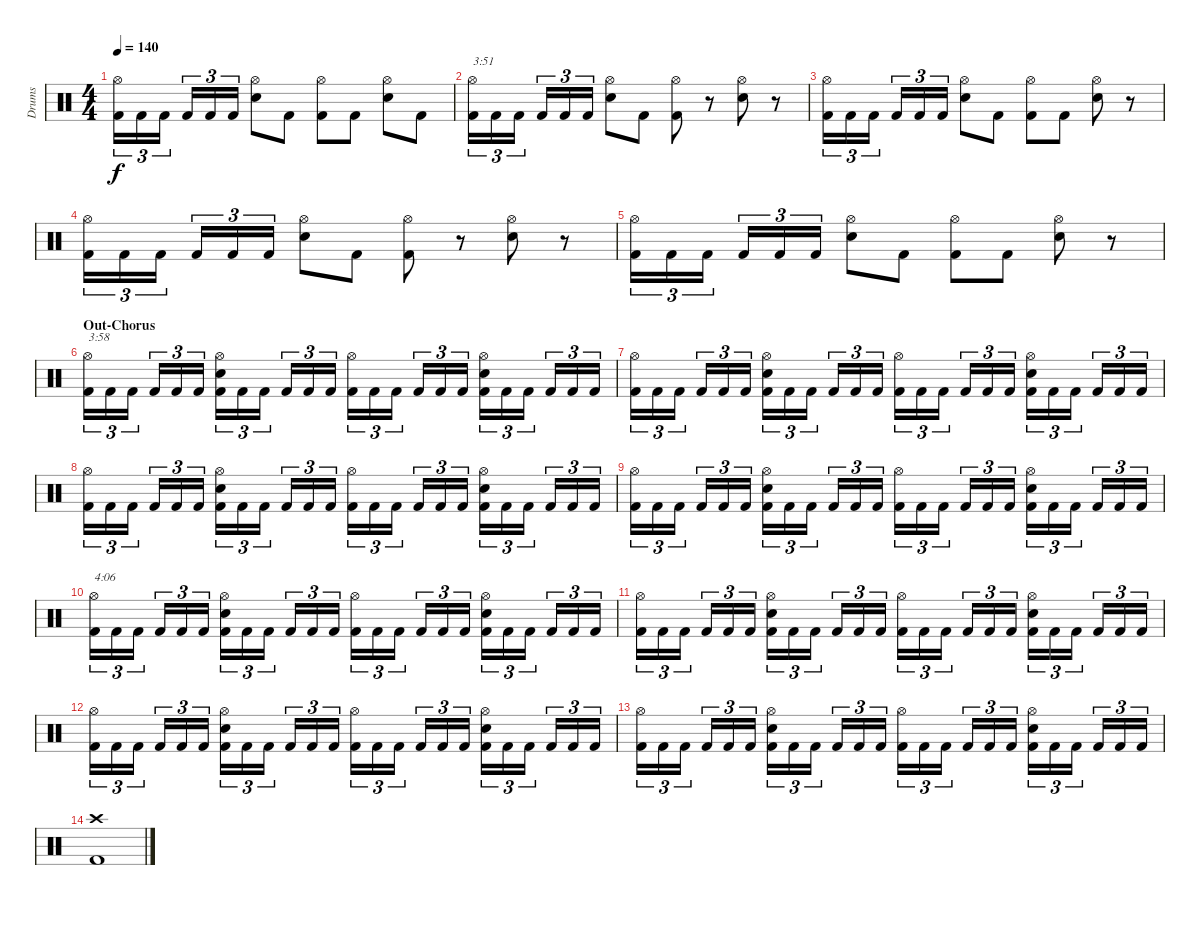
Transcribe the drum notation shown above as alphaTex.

\track ("Drums" "Drums") {instrument percussion}
\staff {score}
\articulation defaults
\ts (4 4)
\tempo 140
\clef neutral
\ks c
("Hi-Hat (open)" "Kick (hit) 2").16{tu (3 2) dy f} "Kick (hit) 2".16{tu (3 2)} "Kick (hit) 2".16{tu (3 2)} "Kick (hit) 2".16{tu (3 2)} "Kick (hit) 2".16{tu (3 2)} "Kick (hit) 2".16{tu (3 2)} ("Hi-Hat (open)" "Electric Snare (hit)").8 "Kick (hit) 2".8 ("Hi-Hat (open)" "Kick (hit) 2").8 "Kick (hit) 2".8 ("Hi-Hat (open)" "Electric Snare (hit)").8 "Kick (hit) 2".8 |
("Hi-Hat (open)" "Kick (hit) 2").16{tu (3 2) txt "3:51"} "Kick (hit) 2".16{tu (3 2)} "Kick (hit) 2".16{tu (3 2)} "Kick (hit) 2".16{tu (3 2)} "Kick (hit) 2".16{tu (3 2)} "Kick (hit) 2".16{tu (3 2)} ("Hi-Hat (open)" "Electric Snare (hit)").8 "Kick (hit) 2".8 ("Hi-Hat (open)" "Kick (hit) 2").8 r.8 ("Hi-Hat (open)" "Electric Snare (hit)").8 r.8 |
("Hi-Hat (open)" "Kick (hit) 2").16{tu (3 2)} "Kick (hit) 2".16{tu (3 2)} "Kick (hit) 2".16{tu (3 2)} "Kick (hit) 2".16{tu (3 2)} "Kick (hit) 2".16{tu (3 2)} "Kick (hit) 2".16{tu (3 2)} ("Hi-Hat (open)" "Electric Snare (hit)").8 "Kick (hit) 2".8 ("Hi-Hat (open)" "Kick (hit) 2").8 "Kick (hit) 2".8 ("Hi-Hat (open)" "Electric Snare (hit)").8 r.8 |
("Hi-Hat (open)" "Kick (hit) 2").16{tu (3 2)} "Kick (hit) 2".16{tu (3 2)} "Kick (hit) 2".16{tu (3 2)} "Kick (hit) 2".16{tu (3 2)} "Kick (hit) 2".16{tu (3 2)} "Kick (hit) 2".16{tu (3 2)} ("Hi-Hat (open)" "Electric Snare (hit)").8 "Kick (hit) 2".8 ("Hi-Hat (open)" "Kick (hit) 2").8 r.8 ("Hi-Hat (open)" "Electric Snare (hit)").8 r.8 |
("Hi-Hat (open)" "Kick (hit) 2").16{tu (3 2)} "Kick (hit) 2".16{tu (3 2)} "Kick (hit) 2".16{tu (3 2)} "Kick (hit) 2".16{tu (3 2)} "Kick (hit) 2".16{tu (3 2)} "Kick (hit) 2".16{tu (3 2)} ("Hi-Hat (open)" "Electric Snare (hit)").8 "Kick (hit) 2".8 ("Hi-Hat (open)" "Kick (hit) 2").8 "Kick (hit) 2".8 ("Hi-Hat (open)" "Electric Snare (hit)").8 r.8 |
\section ("" "Out-Chorus")
("Hi-Hat (open)" "Kick (hit) 2").16{tu (3 2) txt "3:58"} "Kick (hit) 2".16{tu (3 2)} "Kick (hit) 2".16{tu (3 2)} "Kick (hit) 2".16{tu (3 2)} "Kick (hit) 2".16{tu (3 2)} "Kick (hit) 2".16{tu (3 2)} ("Hi-Hat (open)" "Electric Snare (hit)" "Kick (hit) 2").16{tu (3 2)} "Kick (hit) 2".16{tu (3 2)} "Kick (hit) 2".16{tu (3 2)} "Kick (hit) 2".16{tu (3 2)} "Kick (hit) 2".16{tu (3 2)} "Kick (hit) 2".16{tu (3 2)} ("Hi-Hat (open)" "Kick (hit) 2").16{tu (3 2)} "Kick (hit) 2".16{tu (3 2)} "Kick (hit) 2".16{tu (3 2)} "Kick (hit) 2".16{tu (3 2)} "Kick (hit) 2".16{tu (3 2)} "Kick (hit) 2".16{tu (3 2)} ("Hi-Hat (open)" "Electric Snare (hit)" "Kick (hit) 2").16{tu (3 2)} "Kick (hit) 2".16{tu (3 2)} "Kick (hit) 2".16{tu (3 2)} "Kick (hit) 2".16{tu (3 2)} "Kick (hit) 2".16{tu (3 2)} "Kick (hit) 2".16{tu (3 2)} |
("Hi-Hat (open)" "Kick (hit) 2").16{tu (3 2)} "Kick (hit) 2".16{tu (3 2)} "Kick (hit) 2".16{tu (3 2)} "Kick (hit) 2".16{tu (3 2)} "Kick (hit) 2".16{tu (3 2)} "Kick (hit) 2".16{tu (3 2)} ("Hi-Hat (open)" "Electric Snare (hit)" "Kick (hit) 2").16{tu (3 2)} "Kick (hit) 2".16{tu (3 2)} "Kick (hit) 2".16{tu (3 2)} "Kick (hit) 2".16{tu (3 2)} "Kick (hit) 2".16{tu (3 2)} "Kick (hit) 2".16{tu (3 2)} ("Hi-Hat (open)" "Kick (hit) 2").16{tu (3 2)} "Kick (hit) 2".16{tu (3 2)} "Kick (hit) 2".16{tu (3 2)} "Kick (hit) 2".16{tu (3 2)} "Kick (hit) 2".16{tu (3 2)} "Kick (hit) 2".16{tu (3 2)} ("Hi-Hat (open)" "Electric Snare (hit)" "Kick (hit) 2").16{tu (3 2)} "Kick (hit) 2".16{tu (3 2)} "Kick (hit) 2".16{tu (3 2)} "Kick (hit) 2".16{tu (3 2)} "Kick (hit) 2".16{tu (3 2)} "Kick (hit) 2".16{tu (3 2)} |
("Hi-Hat (open)" "Kick (hit) 2").16{tu (3 2)} "Kick (hit) 2".16{tu (3 2)} "Kick (hit) 2".16{tu (3 2)} "Kick (hit) 2".16{tu (3 2)} "Kick (hit) 2".16{tu (3 2)} "Kick (hit) 2".16{tu (3 2)} ("Hi-Hat (open)" "Electric Snare (hit)" "Kick (hit) 2").16{tu (3 2)} "Kick (hit) 2".16{tu (3 2)} "Kick (hit) 2".16{tu (3 2)} "Kick (hit) 2".16{tu (3 2)} "Kick (hit) 2".16{tu (3 2)} "Kick (hit) 2".16{tu (3 2)} ("Hi-Hat (open)" "Kick (hit) 2").16{tu (3 2)} "Kick (hit) 2".16{tu (3 2)} "Kick (hit) 2".16{tu (3 2)} "Kick (hit) 2".16{tu (3 2)} "Kick (hit) 2".16{tu (3 2)} "Kick (hit) 2".16{tu (3 2)} ("Hi-Hat (open)" "Electric Snare (hit)" "Kick (hit) 2").16{tu (3 2)} "Kick (hit) 2".16{tu (3 2)} "Kick (hit) 2".16{tu (3 2)} "Kick (hit) 2".16{tu (3 2)} "Kick (hit) 2".16{tu (3 2)} "Kick (hit) 2".16{tu (3 2)} |
("Hi-Hat (open)" "Kick (hit) 2").16{tu (3 2)} "Kick (hit) 2".16{tu (3 2)} "Kick (hit) 2".16{tu (3 2)} "Kick (hit) 2".16{tu (3 2)} "Kick (hit) 2".16{tu (3 2)} "Kick (hit) 2".16{tu (3 2)} ("Hi-Hat (open)" "Electric Snare (hit)" "Kick (hit) 2").16{tu (3 2)} "Kick (hit) 2".16{tu (3 2)} "Kick (hit) 2".16{tu (3 2)} "Kick (hit) 2".16{tu (3 2)} "Kick (hit) 2".16{tu (3 2)} "Kick (hit) 2".16{tu (3 2)} ("Hi-Hat (open)" "Kick (hit) 2").16{tu (3 2)} "Kick (hit) 2".16{tu (3 2)} "Kick (hit) 2".16{tu (3 2)} "Kick (hit) 2".16{tu (3 2)} "Kick (hit) 2".16{tu (3 2)} "Kick (hit) 2".16{tu (3 2)} ("Hi-Hat (open)" "Electric Snare (hit)" "Kick (hit) 2").16{tu (3 2)} "Kick (hit) 2".16{tu (3 2)} "Kick (hit) 2".16{tu (3 2)} "Kick (hit) 2".16{tu (3 2)} "Kick (hit) 2".16{tu (3 2)} "Kick (hit) 2".16{tu (3 2)} |
("Hi-Hat (open)" "Kick (hit) 2").16{tu (3 2) txt "4:06"} "Kick (hit) 2".16{tu (3 2)} "Kick (hit) 2".16{tu (3 2)} "Kick (hit) 2".16{tu (3 2)} "Kick (hit) 2".16{tu (3 2)} "Kick (hit) 2".16{tu (3 2)} ("Hi-Hat (open)" "Electric Snare (hit)" "Kick (hit) 2").16{tu (3 2)} "Kick (hit) 2".16{tu (3 2)} "Kick (hit) 2".16{tu (3 2)} "Kick (hit) 2".16{tu (3 2)} "Kick (hit) 2".16{tu (3 2)} "Kick (hit) 2".16{tu (3 2)} ("Hi-Hat (open)" "Kick (hit) 2").16{tu (3 2)} "Kick (hit) 2".16{tu (3 2)} "Kick (hit) 2".16{tu (3 2)} "Kick (hit) 2".16{tu (3 2)} "Kick (hit) 2".16{tu (3 2)} "Kick (hit) 2".16{tu (3 2)} ("Hi-Hat (open)" "Electric Snare (hit)" "Kick (hit) 2").16{tu (3 2)} "Kick (hit) 2".16{tu (3 2)} "Kick (hit) 2".16{tu (3 2)} "Kick (hit) 2".16{tu (3 2)} "Kick (hit) 2".16{tu (3 2)} "Kick (hit) 2".16{tu (3 2)} |
("Hi-Hat (open)" "Kick (hit) 2").16{tu (3 2)} "Kick (hit) 2".16{tu (3 2)} "Kick (hit) 2".16{tu (3 2)} "Kick (hit) 2".16{tu (3 2)} "Kick (hit) 2".16{tu (3 2)} "Kick (hit) 2".16{tu (3 2)} ("Hi-Hat (open)" "Electric Snare (hit)" "Kick (hit) 2").16{tu (3 2)} "Kick (hit) 2".16{tu (3 2)} "Kick (hit) 2".16{tu (3 2)} "Kick (hit) 2".16{tu (3 2)} "Kick (hit) 2".16{tu (3 2)} "Kick (hit) 2".16{tu (3 2)} ("Hi-Hat (open)" "Kick (hit) 2").16{tu (3 2)} "Kick (hit) 2".16{tu (3 2)} "Kick (hit) 2".16{tu (3 2)} "Kick (hit) 2".16{tu (3 2)} "Kick (hit) 2".16{tu (3 2)} "Kick (hit) 2".16{tu (3 2)} ("Hi-Hat (open)" "Electric Snare (hit)" "Kick (hit) 2").16{tu (3 2)} "Kick (hit) 2".16{tu (3 2)} "Kick (hit) 2".16{tu (3 2)} "Kick (hit) 2".16{tu (3 2)} "Kick (hit) 2".16{tu (3 2)} "Kick (hit) 2".16{tu (3 2)} |
("Hi-Hat (open)" "Kick (hit) 2").16{tu (3 2)} "Kick (hit) 2".16{tu (3 2)} "Kick (hit) 2".16{tu (3 2)} "Kick (hit) 2".16{tu (3 2)} "Kick (hit) 2".16{tu (3 2)} "Kick (hit) 2".16{tu (3 2)} ("Hi-Hat (open)" "Electric Snare (hit)" "Kick (hit) 2").16{tu (3 2)} "Kick (hit) 2".16{tu (3 2)} "Kick (hit) 2".16{tu (3 2)} "Kick (hit) 2".16{tu (3 2)} "Kick (hit) 2".16{tu (3 2)} "Kick (hit) 2".16{tu (3 2)} ("Hi-Hat (open)" "Kick (hit) 2").16{tu (3 2)} "Kick (hit) 2".16{tu (3 2)} "Kick (hit) 2".16{tu (3 2)} "Kick (hit) 2".16{tu (3 2)} "Kick (hit) 2".16{tu (3 2)} "Kick (hit) 2".16{tu (3 2)} ("Hi-Hat (open)" "Electric Snare (hit)" "Kick (hit) 2").16{tu (3 2)} "Kick (hit) 2".16{tu (3 2)} "Kick (hit) 2".16{tu (3 2)} "Kick (hit) 2".16{tu (3 2)} "Kick (hit) 2".16{tu (3 2)} "Kick (hit) 2".16{tu (3 2)} |
("Hi-Hat (open)" "Kick (hit) 2").16{tu (3 2)} "Kick (hit) 2".16{tu (3 2)} "Kick (hit) 2".16{tu (3 2)} "Kick (hit) 2".16{tu (3 2)} "Kick (hit) 2".16{tu (3 2)} "Kick (hit) 2".16{tu (3 2)} ("Hi-Hat (open)" "Electric Snare (hit)" "Kick (hit) 2").16{tu (3 2)} "Kick (hit) 2".16{tu (3 2)} "Kick (hit) 2".16{tu (3 2)} "Kick (hit) 2".16{tu (3 2)} "Kick (hit) 2".16{tu (3 2)} "Kick (hit) 2".16{tu (3 2)} ("Hi-Hat (open)" "Kick (hit) 2").16{tu (3 2)} "Kick (hit) 2".16{tu (3 2)} "Kick (hit) 2".16{tu (3 2)} "Kick (hit) 2".16{tu (3 2)} "Kick (hit) 2".16{tu (3 2)} "Kick (hit) 2".16{tu (3 2)} ("Hi-Hat (open)" "Electric Snare (hit)" "Kick (hit) 2").16{tu (3 2)} "Kick (hit) 2".16{tu (3 2)} "Kick (hit) 2".16{tu (3 2)} "Kick (hit) 2".16{tu (3 2)} "Kick (hit) 2".16{tu (3 2)} "Kick (hit) 2".16{tu (3 2)} |
("Crash high (hit)" "Kick (hit) 2").1
